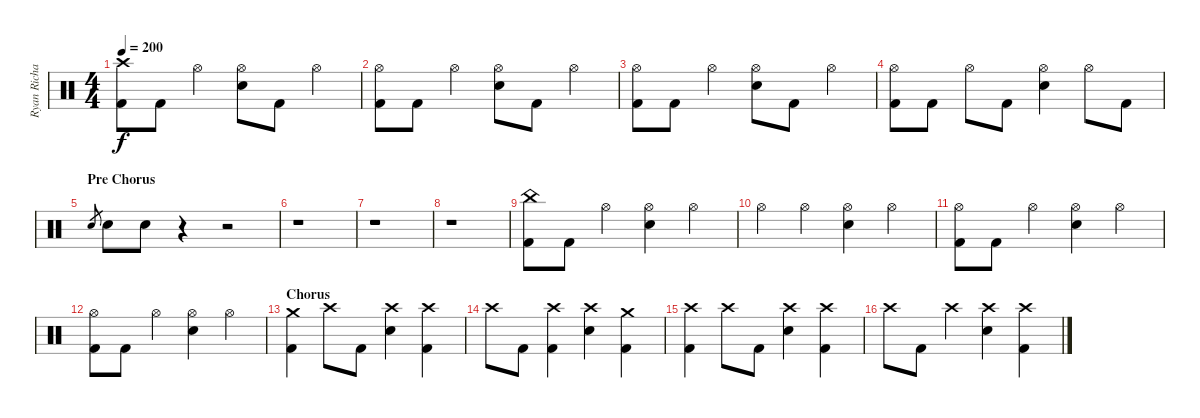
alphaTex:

\track ("Ryan Richards" "Ryan Richa") {instrument percussion}
\staff {score}
\articulation defaults
\ts (4 4)
\tempo 200
\clef neutral
\ks c
("Crash high (hit)" "Kick (hit) 2").8{dy f} "Kick (hit) 2".8 "Hi-Hat (open)".4 ("Hi-Hat (open)" "Electric Snare (hit)").8 "Kick (hit) 2".8 "Hi-Hat (open)".4 |
("Hi-Hat (open)" "Kick (hit) 2").8 "Kick (hit) 2".8 "Hi-Hat (open)".4 ("Hi-Hat (open)" "Electric Snare (hit)").8 "Kick (hit) 2".8 "Hi-Hat (open)".4 |
("Hi-Hat (open)" "Kick (hit) 2").8 "Kick (hit) 2".8 "Hi-Hat (open)".4 ("Hi-Hat (open)" "Electric Snare (hit)").8 "Kick (hit) 2".8 "Hi-Hat (open)".4 |
("Hi-Hat (open)" "Kick (hit) 2").8 "Kick (hit) 2".8 "Hi-Hat (open)".8 "Kick (hit) 2".8 ("Hi-Hat (open)" "Electric Snare (hit)").4 "Hi-Hat (open)".8 "Kick (hit) 2".8 |
\section ("" "Pre Chorus")
"Electric Snare (hit)".8{gr} "Electric Snare (hit)".8 "Electric Snare (hit)".8 r.4 r.2 |
r.1 |
r.1 |
r.1 |
("China (hit)" "Kick (hit) 2").8 "Kick (hit) 2".8 "Hi-Hat (open)".4 ("Hi-Hat (open)" "Electric Snare (hit)").4 "Hi-Hat (open)".4 |
"Hi-Hat (open)".4 "Hi-Hat (open)".4 ("Hi-Hat (open)" "Electric Snare (hit)").4 "Hi-Hat (open)".4 |
("Hi-Hat (open)" "Kick (hit) 2").8 "Kick (hit) 2".8 "Hi-Hat (open)".4 ("Hi-Hat (open)" "Electric Snare (hit)").4 "Hi-Hat (open)".4 |
("Hi-Hat (open)" "Kick (hit) 2").8 "Kick (hit) 2".8 "Hi-Hat (open)".4 ("Hi-Hat (open)" "Electric Snare (hit)").4 "Hi-Hat (open)".4 |
\section ("" "Chorus")
("Crash medium (hit)" "Kick (hit) 2").4 "Crash high (hit)".8 "Kick (hit) 2".8 ("Crash high (hit)" "Electric Snare (hit)").4 ("Crash high (hit)" "Kick (hit) 2").4 |
"Crash high (hit)".8 "Kick (hit) 2".8 ("Crash high (hit)" "Kick (hit) 2").4 ("Crash high (hit)" "Electric Snare (hit)").4 ("Crash medium (hit)" "Kick (hit) 2").4 |
("Crash high (hit)" "Kick (hit) 2").4 "Crash high (hit)".8 "Kick (hit) 2".8 ("Crash high (hit)" "Electric Snare (hit)").4 ("Crash high (hit)" "Kick (hit) 2").4 |
"Crash high (hit)".8 "Kick (hit) 2".8 "Crash high (hit)".4 ("Crash high (hit)" "Electric Snare (hit)").4 ("Crash high (hit)" "Kick (hit) 2").4
